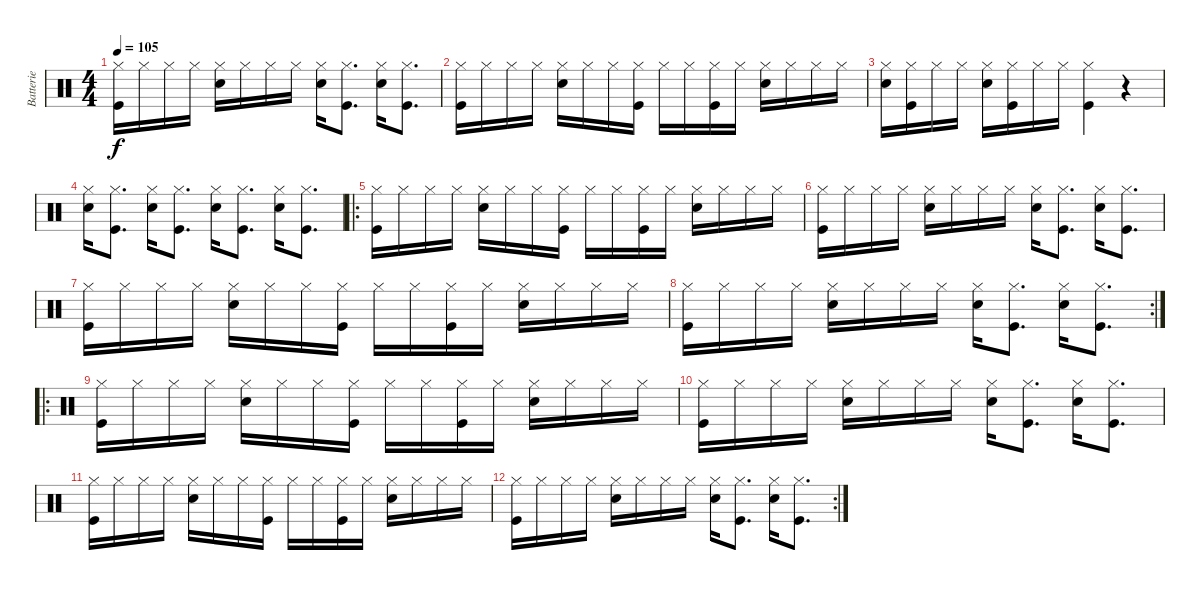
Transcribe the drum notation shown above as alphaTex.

\track ("Batterie" "Batterie") {instrument percussion}
\staff {score}
\articulation defaults
\ts (4 4)
\tempo 105
\clef neutral
\ks c
("Hi-Hat (closed)" "Kick (hit)").16{dy f} "Hi-Hat (closed)".16 "Hi-Hat (closed)".16 "Hi-Hat (closed)".16 ("Hi-Hat (closed)" "Snare (hit) 2").16 "Hi-Hat (closed)".16 "Hi-Hat (closed)".16 "Hi-Hat (closed)".16 ("Hi-Hat (closed)" "Snare (hit) 2").16 ("Hi-Hat (closed)" "Kick (hit)").8{d} ("Hi-Hat (closed)" "Snare (hit) 2").16 ("Hi-Hat (closed)" "Kick (hit)").8{d} |
("Hi-Hat (closed)" "Kick (hit)").16 "Hi-Hat (closed)".16 "Hi-Hat (closed)".16 "Hi-Hat (closed)".16 ("Hi-Hat (closed)" "Snare (hit) 2").16 "Hi-Hat (closed)".16 "Hi-Hat (closed)".16 ("Hi-Hat (closed)" "Kick (hit)").16 "Hi-Hat (closed)".16 "Hi-Hat (closed)".16 ("Hi-Hat (closed)" "Kick (hit)").16 "Hi-Hat (closed)".16 ("Hi-Hat (closed)" "Snare (hit) 2").16 "Hi-Hat (closed)".16 "Hi-Hat (closed)".16 "Hi-Hat (closed)".16 |
("Hi-Hat (closed)" "Snare (hit) 2").16 ("Hi-Hat (closed)" "Kick (hit)").16 "Hi-Hat (closed)".16 "Hi-Hat (closed)".16 ("Hi-Hat (closed)" "Snare (hit) 2").16 ("Hi-Hat (closed)" "Kick (hit)").16 "Hi-Hat (closed)".16 "Hi-Hat (closed)".16 ("Hi-Hat (closed)" "Kick (hit)").4 r.4 |
("Hi-Hat (closed)" "Snare (hit) 2").16 ("Hi-Hat (closed)" "Kick (hit)").8{d} ("Hi-Hat (closed)" "Snare (hit) 2").16 ("Hi-Hat (closed)" "Kick (hit)").8{d} ("Hi-Hat (closed)" "Snare (hit) 2").16 ("Hi-Hat (closed)" "Kick (hit)").8{d} ("Hi-Hat (closed)" "Snare (hit) 2").16 ("Hi-Hat (closed)" "Kick (hit)").8{d} |
\ro
("Hi-Hat (closed)" "Kick (hit)").16 "Hi-Hat (closed)".16 "Hi-Hat (closed)".16 "Hi-Hat (closed)".16 ("Hi-Hat (closed)" "Snare (hit) 2").16 "Hi-Hat (closed)".16 "Hi-Hat (closed)".16 ("Hi-Hat (closed)" "Kick (hit)").16 "Hi-Hat (closed)".16 "Hi-Hat (closed)".16 ("Hi-Hat (closed)" "Kick (hit)").16 "Hi-Hat (closed)".16 ("Hi-Hat (closed)" "Snare (hit) 2").16 "Hi-Hat (closed)".16 "Hi-Hat (closed)".16 "Hi-Hat (closed)".16 |
("Hi-Hat (closed)" "Kick (hit)").16 "Hi-Hat (closed)".16 "Hi-Hat (closed)".16 "Hi-Hat (closed)".16 ("Hi-Hat (closed)" "Snare (hit) 2").16 "Hi-Hat (closed)".16 "Hi-Hat (closed)".16 "Hi-Hat (closed)".16 ("Hi-Hat (closed)" "Snare (hit) 2").16 ("Hi-Hat (closed)" "Kick (hit)").8{d} ("Hi-Hat (closed)" "Snare (hit) 2").16 ("Hi-Hat (closed)" "Kick (hit)").8{d} |
("Hi-Hat (closed)" "Kick (hit)").16 "Hi-Hat (closed)".16 "Hi-Hat (closed)".16 "Hi-Hat (closed)".16 ("Hi-Hat (closed)" "Snare (hit) 2").16 "Hi-Hat (closed)".16 "Hi-Hat (closed)".16 ("Hi-Hat (closed)" "Kick (hit)").16 "Hi-Hat (closed)".16 "Hi-Hat (closed)".16 ("Hi-Hat (closed)" "Kick (hit)").16 "Hi-Hat (closed)".16 ("Hi-Hat (closed)" "Snare (hit) 2").16 "Hi-Hat (closed)".16 "Hi-Hat (closed)".16 "Hi-Hat (closed)".16 |
\rc 2
("Hi-Hat (closed)" "Kick (hit)").16 "Hi-Hat (closed)".16 "Hi-Hat (closed)".16 "Hi-Hat (closed)".16 ("Hi-Hat (closed)" "Snare (hit) 2").16 "Hi-Hat (closed)".16 "Hi-Hat (closed)".16 "Hi-Hat (closed)".16 ("Hi-Hat (closed)" "Snare (hit) 2").16 ("Hi-Hat (closed)" "Kick (hit)").8{d} ("Hi-Hat (closed)" "Snare (hit) 2").16 ("Hi-Hat (closed)" "Kick (hit)").8{d} |
\ro
("Hi-Hat (closed)" "Kick (hit)").16 "Hi-Hat (closed)".16 "Hi-Hat (closed)".16 "Hi-Hat (closed)".16 ("Hi-Hat (closed)" "Snare (hit) 2").16 "Hi-Hat (closed)".16 "Hi-Hat (closed)".16 ("Hi-Hat (closed)" "Kick (hit)").16 "Hi-Hat (closed)".16 "Hi-Hat (closed)".16 ("Hi-Hat (closed)" "Kick (hit)").16 "Hi-Hat (closed)".16 ("Hi-Hat (closed)" "Snare (hit) 2").16 "Hi-Hat (closed)".16 "Hi-Hat (closed)".16 "Hi-Hat (closed)".16 |
("Hi-Hat (closed)" "Kick (hit)").16 "Hi-Hat (closed)".16 "Hi-Hat (closed)".16 "Hi-Hat (closed)".16 ("Hi-Hat (closed)" "Snare (hit) 2").16 "Hi-Hat (closed)".16 "Hi-Hat (closed)".16 "Hi-Hat (closed)".16 ("Hi-Hat (closed)" "Snare (hit) 2").16 ("Hi-Hat (closed)" "Kick (hit)").8{d} ("Hi-Hat (closed)" "Snare (hit) 2").16 ("Hi-Hat (closed)" "Kick (hit)").8{d} |
("Hi-Hat (closed)" "Kick (hit)").16 "Hi-Hat (closed)".16 "Hi-Hat (closed)".16 "Hi-Hat (closed)".16 ("Hi-Hat (closed)" "Snare (hit) 2").16 "Hi-Hat (closed)".16 "Hi-Hat (closed)".16 ("Hi-Hat (closed)" "Kick (hit)").16 "Hi-Hat (closed)".16 "Hi-Hat (closed)".16 ("Hi-Hat (closed)" "Kick (hit)").16 "Hi-Hat (closed)".16 ("Hi-Hat (closed)" "Snare (hit) 2").16 "Hi-Hat (closed)".16 "Hi-Hat (closed)".16 "Hi-Hat (closed)".16 |
\rc 2
("Hi-Hat (closed)" "Kick (hit)").16 "Hi-Hat (closed)".16 "Hi-Hat (closed)".16 "Hi-Hat (closed)".16 ("Hi-Hat (closed)" "Snare (hit) 2").16 "Hi-Hat (closed)".16 "Hi-Hat (closed)".16 "Hi-Hat (closed)".16 ("Hi-Hat (closed)" "Snare (hit) 2").16 ("Hi-Hat (closed)" "Kick (hit)").8{d} ("Hi-Hat (closed)" "Snare (hit) 2").16 ("Hi-Hat (closed)" "Kick (hit)").8{d}
